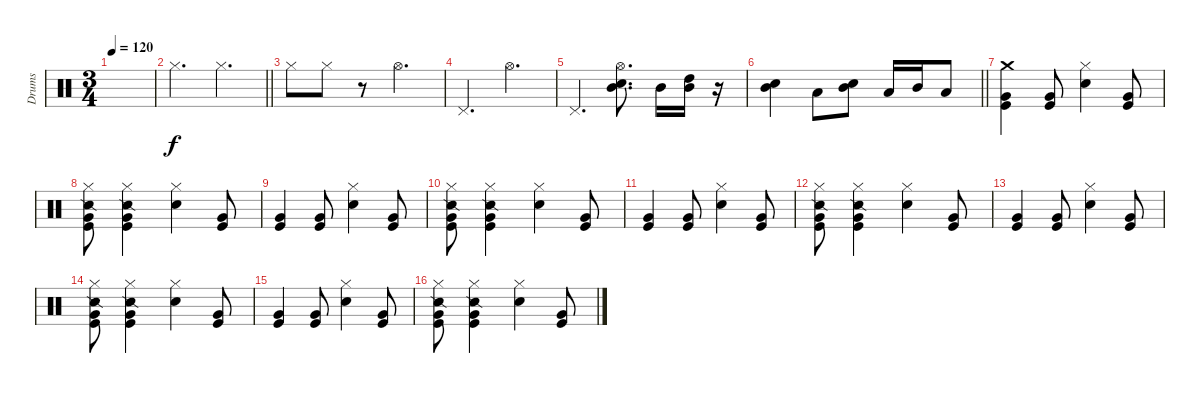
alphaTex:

\track ("Drums" "Drums") {instrument percussion}
\staff {score}
\articulation defaults
\ts (3 4)
\tempo 120
\clef neutral
\ks c
|
\barLineRight lightlight "Hi-Hat (closed)".4{d dy f} "Hi-Hat (closed)".4{d}
|
"Hi-Hat (closed)".8 "Hi-Hat (closed)".8 r.8 "Hi-Hat (open)".4{d} |
"Pedal Hi-Hat (hit)".4{d} "Hi-Hat (open)".4{d} |
"Pedal Hi-Hat (hit)".4{d} ("Hi-Hat (open)" "Snare (hit) 2" "Mid Tom (hit)").8{d} "Mid Tom (hit)".16 ("Mid Tom (hit)" "High Tom (hit)").16 r.16 |
\barLineRight lightlight
("Snare (hit) 2" "Mid Tom (hit)").4 "Low Tom (hit)".8 ("Snare (hit) 2" "Mid Tom (hit)").8 "Low Tom (hit)".16 "Mid Tom (hit)".16 "Low Tom (hit)".8 |
("Crash medium (hit)" "Very Low Tom (hit)" "Kick (hit)").4 ("Very Low Tom (hit)" "Kick (hit)").8 ("Hi-Hat (closed)" "Electric Snare (hit)").4 ("Very Low Tom (hit)" "Kick (hit)").8 |
("Hi-Hat (closed)" "Snare (side stick) 2" "Very Low Tom (hit)" "Kick (hit)").8 ("Hi-Hat (closed)" "Snare (side stick) 2" "Very Low Tom (hit)" "Kick (hit)").4 ("Hi-Hat (closed)" "Electric Snare (hit)").4 ("Very Low Tom (hit)" "Kick (hit)").8 |
("Very Low Tom (hit)" "Kick (hit)").4 ("Very Low Tom (hit)" "Kick (hit)").8 ("Hi-Hat (closed)" "Electric Snare (hit)").4 ("Very Low Tom (hit)" "Kick (hit)").8 |
("Hi-Hat (closed)" "Snare (side stick) 2" "Very Low Tom (hit)" "Kick (hit)").8 ("Hi-Hat (closed)" "Snare (side stick) 2" "Very Low Tom (hit)" "Kick (hit)").4 ("Hi-Hat (closed)" "Electric Snare (hit)").4 ("Very Low Tom (hit)" "Kick (hit)").8 |
("Very Low Tom (hit)" "Kick (hit)").4 ("Very Low Tom (hit)" "Kick (hit)").8 ("Hi-Hat (closed)" "Electric Snare (hit)").4 ("Very Low Tom (hit)" "Kick (hit)").8 |
("Hi-Hat (closed)" "Snare (side stick) 2" "Very Low Tom (hit)" "Kick (hit)").8 ("Hi-Hat (closed)" "Snare (side stick) 2" "Very Low Tom (hit)" "Kick (hit)").4 ("Hi-Hat (closed)" "Electric Snare (hit)").4 ("Very Low Tom (hit)" "Kick (hit)").8 |
("Very Low Tom (hit)" "Kick (hit)").4 ("Very Low Tom (hit)" "Kick (hit)").8 ("Hi-Hat (closed)" "Electric Snare (hit)").4 ("Very Low Tom (hit)" "Kick (hit)").8 |
("Hi-Hat (closed)" "Snare (side stick) 2" "Very Low Tom (hit)" "Kick (hit)").8 ("Hi-Hat (closed)" "Snare (side stick) 2" "Very Low Tom (hit)" "Kick (hit)").4 ("Hi-Hat (closed)" "Electric Snare (hit)").4 ("Very Low Tom (hit)" "Kick (hit)").8 |
("Very Low Tom (hit)" "Kick (hit)").4 ("Very Low Tom (hit)" "Kick (hit)").8 ("Hi-Hat (closed)" "Electric Snare (hit)").4 ("Very Low Tom (hit)" "Kick (hit)").8 |
("Hi-Hat (closed)" "Snare (side stick) 2" "Very Low Tom (hit)" "Kick (hit)").8 ("Hi-Hat (closed)" "Snare (side stick) 2" "Very Low Tom (hit)" "Kick (hit)").4 ("Hi-Hat (closed)" "Electric Snare (hit)").4 ("Very Low Tom (hit)" "Kick (hit)").8
